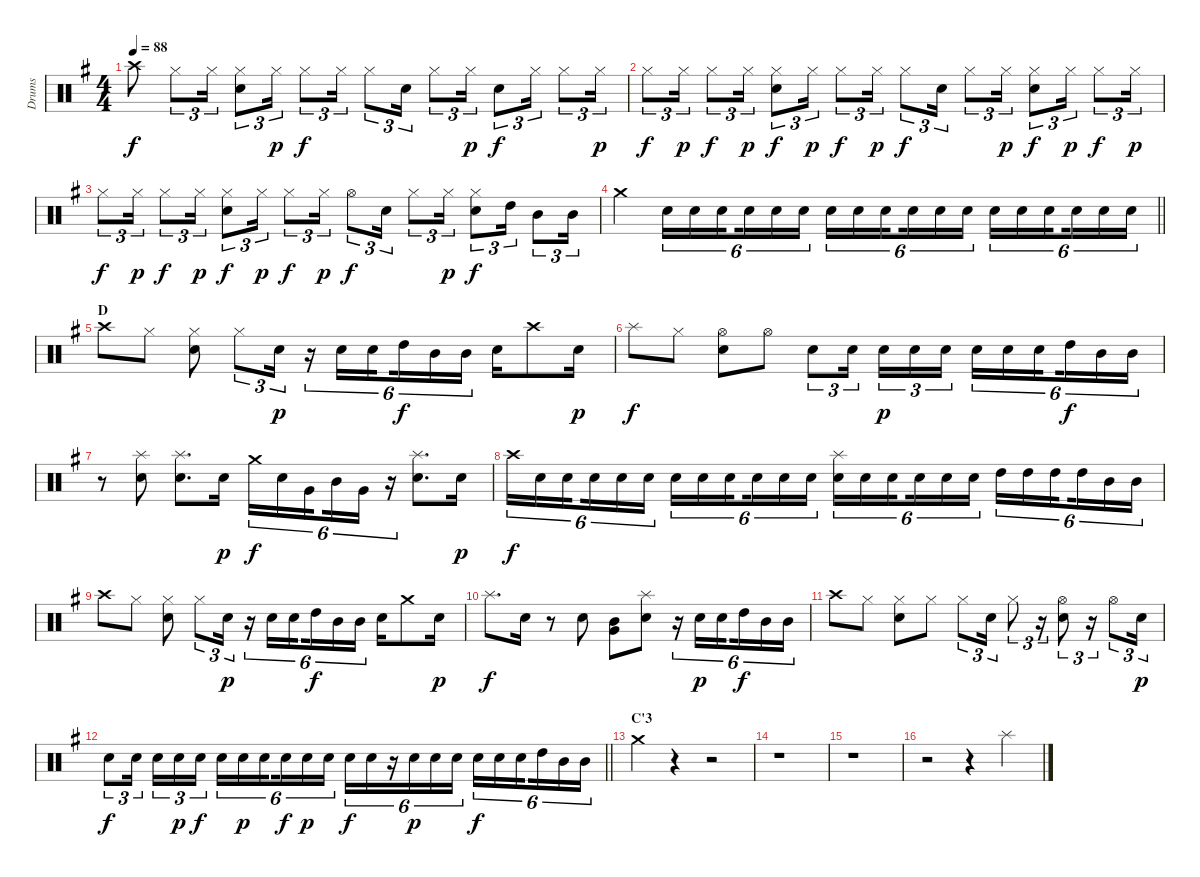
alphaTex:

\track ("Drums" "Drums") {instrument percussion}
\staff {score}
\articulation defaults
\ts (4 4)
\tempo 88
\clef neutral
\ks g "Crash high (hit)".8{dy f} "Hi-Hat (closed)".8{tu (3 2)} "Hi-Hat (closed)".16{tu (3 2)}
("Hi-Hat (closed)" "Snare (hit) 2").8{tu (3 2)} "Hi-Hat (closed)".16{tu (3 2) dy p} "Hi-Hat (closed)".8{tu (3 2) dy f} "Hi-Hat (closed)".16{tu (3 2)} "Hi-Hat (closed)".8{tu (3 2)} "Snare (hit) 2".16{tu (3 2)} "Hi-Hat (closed)".8{tu (3 2)} "Hi-Hat (closed)".16{tu (3 2) dy p} "Snare (hit) 2".8{tu (3 2) dy f} "Hi-Hat (closed)".16{tu (3 2)} "Hi-Hat (closed)".8{tu (3 2)} "Hi-Hat (closed)".16{tu (3 2) dy p} |
"Hi-Hat (closed)".8{tu (3 2) dy f} "Hi-Hat (closed)".16{tu (3 2) dy p} "Hi-Hat (closed)".8{tu (3 2) dy f} "Hi-Hat (closed)".16{tu (3 2) dy p} ("Hi-Hat (closed)" "Snare (hit) 2").8{tu (3 2) dy f} "Hi-Hat (closed)".16{tu (3 2) dy p} "Hi-Hat (closed)".8{tu (3 2) dy f} "Hi-Hat (closed)".16{tu (3 2) dy p} "Hi-Hat (closed)".8{tu (3 2) dy f} "Snare (hit) 2".16{tu (3 2)} "Hi-Hat (closed)".8{tu (3 2)} "Hi-Hat (closed)".16{tu (3 2) dy p} ("Hi-Hat (closed)" "Snare (hit) 2").8{tu (3 2) dy f} "Hi-Hat (closed)".16{tu (3 2) dy p} "Hi-Hat (closed)".8{tu (3 2) dy f} "Hi-Hat (closed)".16{tu (3 2) dy p} |
"Hi-Hat (closed)".8{tu (3 2) dy f} "Hi-Hat (closed)".16{tu (3 2) dy p} "Hi-Hat (closed)".8{tu (3 2) dy f} "Hi-Hat (closed)".16{tu (3 2) dy p} ("Hi-Hat (closed)" "Snare (hit) 2").8{tu (3 2) dy f} "Hi-Hat (closed)".16{tu (3 2) dy p} "Hi-Hat (closed)".8{tu (3 2) dy f} "Hi-Hat (closed)".16{tu (3 2) dy p} "Hi-Hat (open)".8{tu (3 2) dy f} "Snare (hit) 2".16{tu (3 2)} "Hi-Hat (closed)".8{tu (3 2)} "Hi-Hat (closed)".16{tu (3 2) dy p} ("Hi-Hat (closed)" "Snare (hit) 2").8{tu (3 2) dy f} "High Tom (hit)".16{tu (3 2)} "Mid Tom (hit)".8{tu (3 2)} "Mid Tom (hit)".16{tu (3 2)} |
\barLineRight lightlight "Crash medium (hit)".4 "Snare (hit) 2".16{tu (6 4)} "Snare (hit) 2".16{tu (6 4)} "Snare (hit) 2".16{tu (6 4) beam splitsecondary} "Snare (hit) 2".16{tu (6 4)} "Snare (hit) 2".16{tu (6 4)} "Snare (hit) 2".16{tu (6 4)} "Snare (hit) 2".16{tu (6 4)} "Snare (hit) 2".16{tu (6 4)} "Snare (hit) 2".16{tu (6 4) beam splitsecondary} "Snare (hit) 2".16{tu (6 4)} "Snare (hit) 2".16{tu (6 4)} "Snare (hit) 2".16{tu (6 4)} "Snare (hit) 2".16{tu (6 4)} "Snare (hit) 2".16{tu (6 4)} "Snare (hit) 2".16{tu (6 4) beam splitsecondary} "Snare (hit) 2".16{tu (6 4)} "Snare (hit) 2".16{tu (6 4)} "Snare (hit) 2".16{tu (6 4)}
|
\section ("" "D")
"Crash high (hit)".8 "Hi-Hat (closed)".8 ("Hi-Hat (closed)" "Snare (hit) 2").8 "Hi-Hat (closed)".8{tu (3 2)} "Snare (hit) 2".16{tu (3 2) dy p} r.16{tu (6 4)} "Snare (hit) 2".16{tu (6 4)} "Snare (hit) 2".16{tu (6 4) beam splitsecondary} "High Tom (hit)".16{tu (6 4) dy f} "Mid Tom (hit)".16{tu (6 4)} "Mid Tom (hit)".16{tu (6 4)} "Snare (hit) 2".16 "Crash high (hit)".8 "Snare (hit) 2".16{dy p} |
"Splash (hit)".8{dy f} "Hi-Hat (closed)".8 ("Hi-Hat (open)" "Snare (hit) 2").8 "Hi-Hat (open)".8 "Snare (hit) 2".8{tu (3 2)} "Snare (hit) 2".16{tu (3 2) beam splitsecondary} "Snare (hit) 2".16{tu (3 2) dy p} "Snare (hit) 2".16{tu (3 2)} "Snare (hit) 2".16{tu (3 2)} "Snare (hit) 2".16{tu (6 4)} "Snare (hit) 2".16{tu (6 4)} "Snare (hit) 2".16{tu (6 4) beam splitsecondary} "High Tom (hit)".16{tu (6 4) dy f} "Mid Tom (hit)".16{tu (6 4)} "Mid Tom (hit)".16{tu (6 4)} |
r.8 ("Splash (hit)" "Snare (hit) 2").8 ("Splash (hit)" "Snare (hit) 2").8{d} "Snare (hit) 2".16{dy p} "Crash medium (hit)".16{tu (6 4) dy f} "Snare (hit) 2".16{tu (6 4)} "Very Low Tom (hit)".16{tu (6 4) beam splitsecondary} "Mid Tom (hit)".16{tu (6 4)} "Very Low Tom (hit)".16{tu (6 4)} r.16{tu (6 4)} ("Splash (hit)" "Snare (hit) 2").8{d} "Snare (hit) 2".16{dy p} |
"Crash high (hit)".16{tu (6 4) dy f} "Snare (hit) 2".16{tu (6 4)} "Snare (hit) 2".16{tu (6 4) beam splitsecondary} "Snare (hit) 2".16{tu (6 4)} "Snare (hit) 2".16{tu (6 4)} "Snare (hit) 2".16{tu (6 4)} "Snare (hit) 2".16{tu (6 4)} "Snare (hit) 2".16{tu (6 4)} "Snare (hit) 2".16{tu (6 4) beam splitsecondary} "Snare (hit) 2".16{tu (6 4)} "Snare (hit) 2".16{tu (6 4)} "Snare (hit) 2".16{tu (6 4)} ("Splash (hit)" "Snare (hit) 2").16{tu (6 4)} "Snare (hit) 2".16{tu (6 4)} "Snare (hit) 2".16{tu (6 4) beam splitsecondary} "Snare (hit) 2".16{tu (6 4)} "Snare (hit) 2".16{tu (6 4)} "Snare (hit) 2".16{tu (6 4)} "High Tom (hit)".16{tu (6 4)} "High Tom (hit)".16{tu (6 4)} "High Tom (hit)".16{tu (6 4) beam splitsecondary} "High Tom (hit)".16{tu (6 4)} "Mid Tom (hit)".16{tu (6 4)} "Mid Tom (hit)".16{tu (6 4)} |
"Crash high (hit)".8 "Hi-Hat (closed)".8 ("Hi-Hat (closed)" "Snare (hit) 2").8 "Hi-Hat (closed)".8{tu (3 2)} "Snare (hit) 2".16{tu (3 2) dy p} r.16{tu (6 4)} "Snare (hit) 2".16{tu (6 4)} "Snare (hit) 2".16{tu (6 4) beam splitsecondary} "High Tom (hit)".16{tu (6 4) dy f} "Mid Tom (hit)".16{tu (6 4)} "Mid Tom (hit)".16{tu (6 4)} "Snare (hit) 2".16 "Crash medium (hit)".8 "Snare (hit) 2".16{dy p} |
"Splash (hit)".8{d dy f} "Snare (hit) 2".16 r.8 "Snare (hit) 2".8 ("Mid Tom (hit)" "Very Low Tom (hit)").8 ("Snare (hit) 2" "Splash (hit)").8 r.16{tu (6 4)} "Snare (hit) 2".16{tu (6 4) dy p} "Snare (hit) 2".16{tu (6 4) beam splitsecondary} "High Tom (hit)".16{tu (6 4) dy f} "Mid Tom (hit)".16{tu (6 4)} "Mid Tom (hit)".16{tu (6 4)} |
"Crash high (hit)".8 "Hi-Hat (closed)".8 ("Hi-Hat (closed)" "Snare (hit) 2").8 "Hi-Hat (closed)".8 "Hi-Hat (closed)".8{tu (3 2)} "Snare (hit) 2".16{tu (3 2)} "Hi-Hat (closed)".8{tu (3 2)} r.16{tu (3 2)} ("Hi-Hat (open)" "Snare (hit) 2").8{tu (3 2)} r.16{tu (3 2)} "Hi-Hat (open)".8{tu (3 2)} "Snare (hit) 2".16{tu (3 2) dy p} |
\barLineRight lightlight "Snare (hit) 2".8{tu (3 2) dy f} "Snare (hit) 2".16{tu (3 2) beam splitsecondary} "Snare (hit) 2".16{tu (3 2)} "Snare (hit) 2".16{tu (3 2) dy p} "Snare (hit) 2".16{tu (3 2) dy f} "Snare (hit) 2".16{tu (6 4)} "Snare (hit) 2".16{tu (6 4) dy p} "Snare (hit) 2".16{tu (6 4) beam splitsecondary} "Snare (hit) 2".16{tu (6 4) dy f} "Snare (hit) 2".16{tu (6 4) dy p} "Snare (hit) 2".16{tu (6 4)} "Snare (hit) 2".16{tu (6 4) dy f} "Snare (hit) 2".16{tu (6 4)}
r.16{tu (6 4)} "Snare (hit) 2".16{tu (6 4) dy p} "Snare (hit) 2".16{tu (6 4)} "Snare (hit) 2".16{tu (6 4)} "Snare (hit) 2".16{tu (6 4) dy f} "Snare (hit) 2".16{tu (6 4)} "Snare (hit) 2".16{tu (6 4) beam splitsecondary} "High Tom (hit)".16{tu (6 4)} "Mid Tom (hit)".16{tu (6 4)} "Mid Tom (hit)".16{tu (6 4)} |
\section ("" "C'3")
"Crash medium (hit)".4 r.4 r.2 |
r.1 |
r.1 |
r.2 r.4 "Splash (hit)".4
